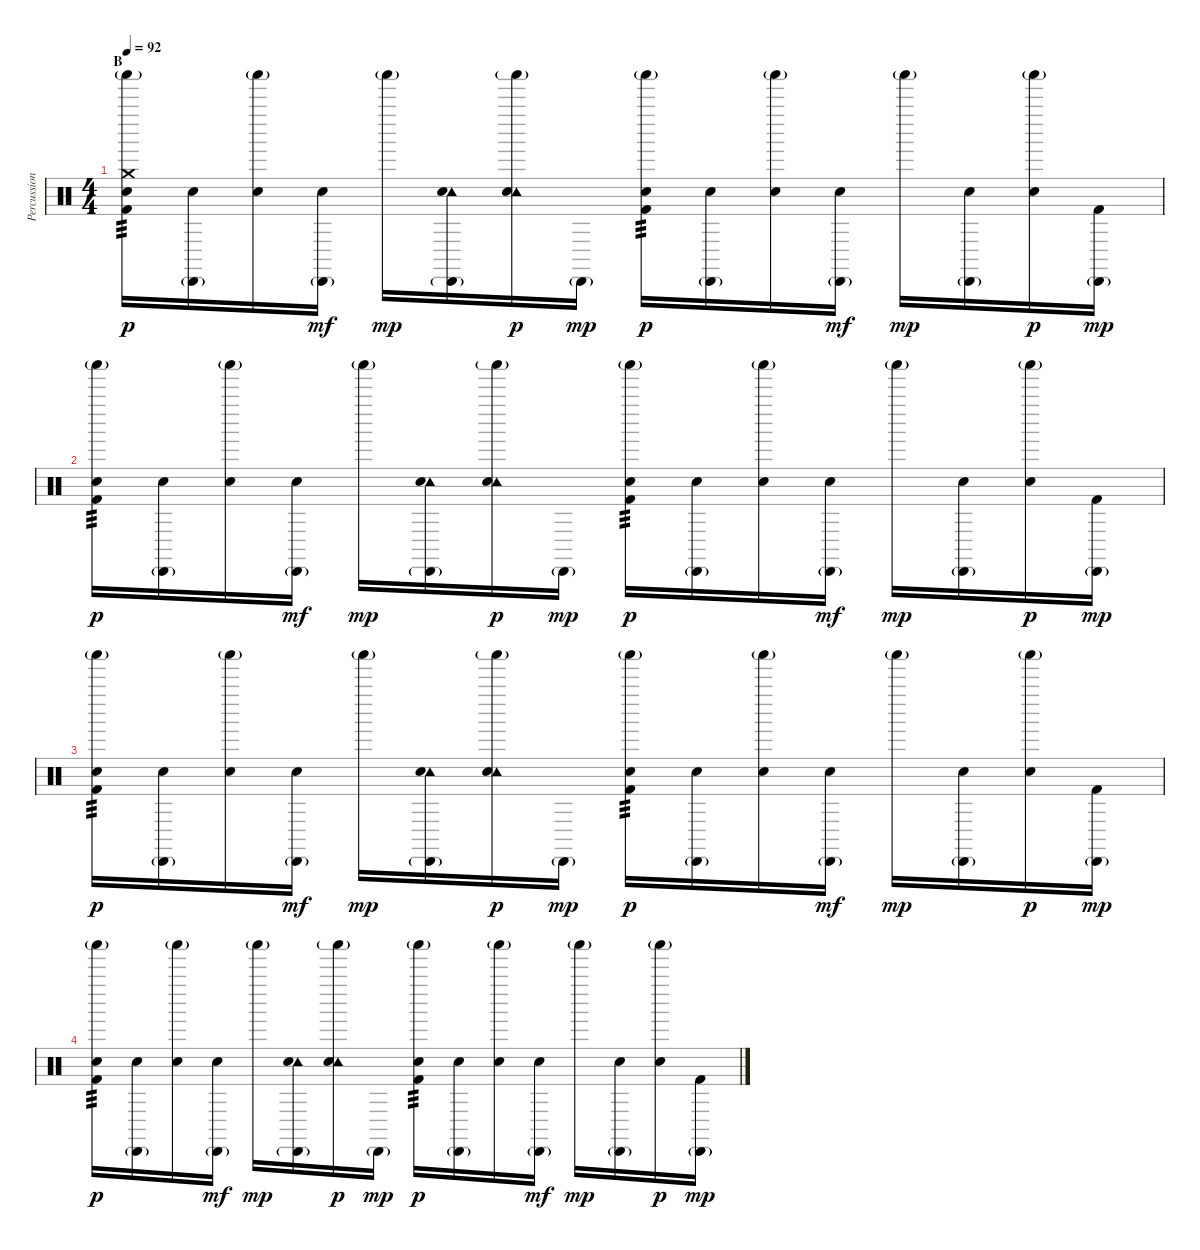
\track ("Percussion2" "Percussion") {instrument percussion}
\staff {score}
\articulation defaults
\ts (4 4)
\section ("" "B")
\tempo 92
\clef neutral
\ks c
("Shaker (hit)"{g} "Crash medium (hit)" "Snare (hit) 2" "Kick (hit) 2").16{tp 3 dy p} ("Cabasa (hit)"{g} "Snare (hit) 2").16 ("Shaker (hit)"{g} "Snare (hit) 2").16 ("Cabasa (hit)"{g} "Snare (hit) 2").16{dy mf} "Shaker (hit)"{g}.16{dy mp} ("Cabasa (hit)"{g} "Tambourine (hit)" "Snare (hit) 2").16 ("Shaker (hit)"{g} "Tambourine (hit)" "Snare (hit) 2").16{dy p} "Cabasa (hit)"{g}.16{dy mp} ("Shaker (hit)"{g} "Snare (hit) 2" "Kick (hit) 2").16{tp 3 dy p} ("Cabasa (hit)"{g} "Snare (hit) 2").16 ("Shaker (hit)"{g} "Snare (hit) 2").16 ("Cabasa (hit)"{g} "Snare (hit) 2").16{dy mf} "Shaker (hit)"{g}.16{dy mp} ("Cabasa (hit)"{g} "Snare (hit) 2").16 ("Shaker (hit)"{g} "Snare (hit) 2").16{dy p} ("Cabasa (hit)"{g} "Kick (hit) 2").16{dy mp} |
("Shaker (hit)"{g} "Snare (hit) 2" "Kick (hit) 2").16{tp 3 dy p} ("Cabasa (hit)"{g} "Snare (hit) 2").16 ("Shaker (hit)"{g} "Snare (hit) 2").16 ("Cabasa (hit)"{g} "Snare (hit) 2").16{dy mf} "Shaker (hit)"{g}.16{dy mp} ("Cabasa (hit)"{g} "Tambourine (hit)" "Snare (hit) 2").16 ("Shaker (hit)"{g} "Tambourine (hit)" "Snare (hit) 2").16{dy p} "Cabasa (hit)"{g}.16{dy mp} ("Shaker (hit)"{g} "Snare (hit) 2" "Kick (hit) 2").16{tp 3 dy p} ("Cabasa (hit)"{g} "Snare (hit) 2").16 ("Shaker (hit)"{g} "Snare (hit) 2").16 ("Cabasa (hit)"{g} "Snare (hit) 2").16{dy mf} "Shaker (hit)"{g}.16{dy mp} ("Cabasa (hit)"{g} "Snare (hit) 2").16 ("Shaker (hit)"{g} "Snare (hit) 2").16{dy p} ("Cabasa (hit)"{g} "Kick (hit) 2").16{dy mp} |
("Shaker (hit)"{g} "Snare (hit) 2" "Kick (hit) 2").16{tp 3 dy p} ("Cabasa (hit)"{g} "Snare (hit) 2").16 ("Shaker (hit)"{g} "Snare (hit) 2").16 ("Cabasa (hit)"{g} "Snare (hit) 2").16{dy mf} "Shaker (hit)"{g}.16{dy mp} ("Cabasa (hit)"{g} "Tambourine (hit)" "Snare (hit) 2").16 ("Shaker (hit)"{g} "Tambourine (hit)" "Snare (hit) 2").16{dy p} "Cabasa (hit)"{g}.16{dy mp} ("Shaker (hit)"{g} "Snare (hit) 2" "Kick (hit) 2").16{tp 3 dy p} ("Cabasa (hit)"{g} "Snare (hit) 2").16 ("Shaker (hit)"{g} "Snare (hit) 2").16 ("Cabasa (hit)"{g} "Snare (hit) 2").16{dy mf} "Shaker (hit)"{g}.16{dy mp} ("Cabasa (hit)"{g} "Snare (hit) 2").16 ("Shaker (hit)"{g} "Snare (hit) 2").16{dy p} ("Cabasa (hit)"{g} "Kick (hit) 2").16{dy mp} |
("Shaker (hit)"{g} "Snare (hit) 2" "Kick (hit) 2").16{tp 3 dy p} ("Cabasa (hit)"{g} "Snare (hit) 2").16 ("Shaker (hit)"{g} "Snare (hit) 2").16 ("Cabasa (hit)"{g} "Snare (hit) 2").16{dy mf} "Shaker (hit)"{g}.16{dy mp} ("Cabasa (hit)"{g} "Tambourine (hit)" "Snare (hit) 2").16 ("Shaker (hit)"{g} "Tambourine (hit)" "Snare (hit) 2").16{dy p} "Cabasa (hit)"{g}.16{dy mp} ("Shaker (hit)"{g} "Snare (hit) 2" "Kick (hit) 2").16{tp 3 dy p} ("Cabasa (hit)"{g} "Snare (hit) 2").16 ("Shaker (hit)"{g} "Snare (hit) 2").16 ("Cabasa (hit)"{g} "Snare (hit) 2").16{dy mf} "Shaker (hit)"{g}.16{dy mp} ("Cabasa (hit)"{g} "Snare (hit) 2").16 ("Shaker (hit)"{g} "Snare (hit) 2").16{dy p} ("Cabasa (hit)"{g} "Kick (hit) 2").16{dy mp}
